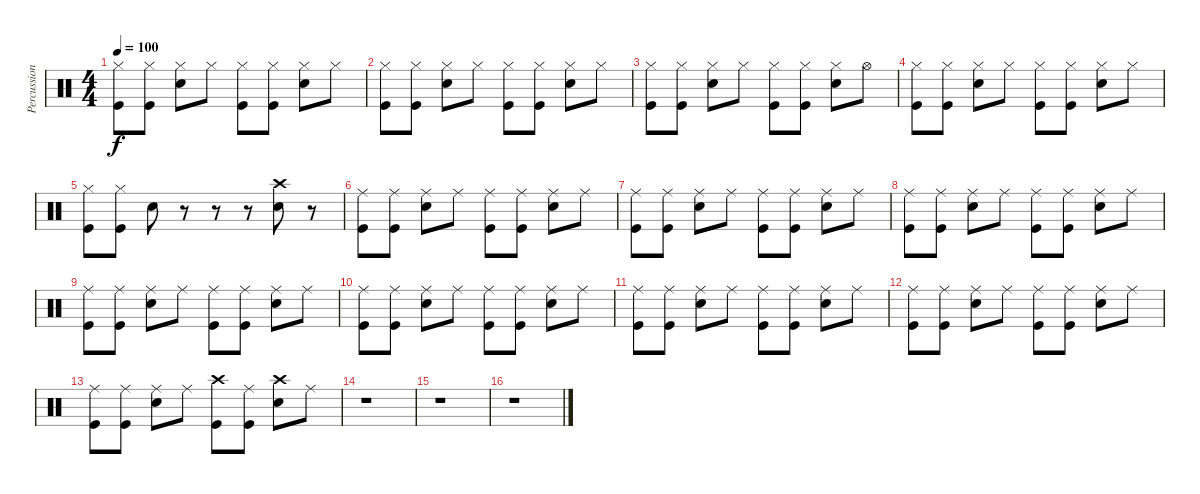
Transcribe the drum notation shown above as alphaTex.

\track ("Percussions" "Percussion") {instrument percussion}
\staff {score}
\articulation defaults
\ts (4 4)
\tempo 100
\clef neutral
\ks c
("Hi-Hat (closed)" "Kick (hit)").8{dy f} ("Hi-Hat (closed)" "Kick (hit)").8 ("Hi-Hat (closed)" "Electric Snare (hit)").8 "Hi-Hat (closed)".8 ("Hi-Hat (closed)" "Kick (hit)").8 ("Hi-Hat (closed)" "Kick (hit)").8 ("Hi-Hat (closed)" "Electric Snare (hit)").8 "Hi-Hat (closed)".8 |
("Hi-Hat (closed)" "Kick (hit)").8 ("Hi-Hat (closed)" "Kick (hit)").8 ("Hi-Hat (closed)" "Electric Snare (hit)").8 "Hi-Hat (closed)".8 ("Hi-Hat (closed)" "Kick (hit)").8 ("Hi-Hat (closed)" "Kick (hit)").8 ("Hi-Hat (closed)" "Electric Snare (hit)").8 "Hi-Hat (closed)".8 |
("Hi-Hat (closed)" "Kick (hit)").8 ("Hi-Hat (closed)" "Kick (hit)").8 ("Hi-Hat (closed)" "Electric Snare (hit)").8 "Hi-Hat (closed)".8 ("Hi-Hat (closed)" "Kick (hit)").8 ("Hi-Hat (closed)" "Kick (hit)").8 ("Hi-Hat (closed)" "Electric Snare (hit)").8 "Hi-Hat (open)".8 |
("Hi-Hat (closed)" "Kick (hit)").8 ("Hi-Hat (closed)" "Kick (hit)").8 ("Hi-Hat (closed)" "Electric Snare (hit)").8 "Hi-Hat (closed)".8 ("Hi-Hat (closed)" "Kick (hit)").8 ("Hi-Hat (closed)" "Kick (hit)").8 ("Hi-Hat (closed)" "Electric Snare (hit)").8 "Hi-Hat (closed)".8 |
("Hi-Hat (closed)" "Kick (hit)").8 ("Hi-Hat (closed)" "Kick (hit)").8 "Electric Snare (hit)".8 r.8 r.8 r.8 ("Crash high (hit)" "Electric Snare (hit)").8 r.8 |
("Ride (middle)" "Kick (hit)").8 ("Ride (middle)" "Kick (hit)").8 ("Ride (middle)" "Electric Snare (hit)").8 "Ride (middle)".8 ("Ride (middle)" "Kick (hit)").8 ("Ride (middle)" "Kick (hit)").8 ("Ride (middle)" "Electric Snare (hit)").8 "Ride (middle)".8 |
("Ride (middle)" "Kick (hit)").8 ("Ride (middle)" "Kick (hit)").8 ("Ride (middle)" "Electric Snare (hit)").8 "Ride (middle)".8 ("Ride (middle)" "Kick (hit)").8 ("Ride (middle)" "Kick (hit)").8 ("Ride (middle)" "Electric Snare (hit)").8 "Ride (middle)".8 |
("Ride (middle)" "Kick (hit)").8 ("Ride (middle)" "Kick (hit)").8 ("Ride (middle)" "Electric Snare (hit)").8 "Ride (middle)".8 ("Ride (middle)" "Kick (hit)").8 ("Ride (middle)" "Kick (hit)").8 ("Ride (middle)" "Electric Snare (hit)").8 "Ride (middle)".8 |
("Ride (middle)" "Kick (hit)").8 ("Ride (middle)" "Kick (hit)").8 ("Ride (middle)" "Electric Snare (hit)").8 "Ride (middle)".8 ("Ride (middle)" "Kick (hit)").8 ("Ride (middle)" "Kick (hit)").8 ("Ride (middle)" "Electric Snare (hit)").8 "Ride (middle)".8 |
("Ride (middle)" "Kick (hit)").8 ("Ride (middle)" "Kick (hit)").8 ("Ride (middle)" "Electric Snare (hit)").8 "Ride (middle)".8 ("Ride (middle)" "Kick (hit)").8 ("Ride (middle)" "Kick (hit)").8 ("Ride (middle)" "Electric Snare (hit)").8 "Ride (middle)".8 |
("Ride (middle)" "Kick (hit)").8 ("Ride (middle)" "Kick (hit)").8 ("Ride (middle)" "Electric Snare (hit)").8 "Ride (middle)".8 ("Ride (middle)" "Kick (hit)").8 ("Ride (middle)" "Kick (hit)").8 ("Ride (middle)" "Electric Snare (hit)").8 "Ride (middle)".8 |
("Ride (middle)" "Kick (hit)").8 ("Ride (middle)" "Kick (hit)").8 ("Ride (middle)" "Electric Snare (hit)").8 "Ride (middle)".8 ("Ride (middle)" "Kick (hit)").8 ("Ride (middle)" "Kick (hit)").8 ("Ride (middle)" "Electric Snare (hit)").8 "Ride (middle)".8 |
("Ride (middle)" "Kick (hit)").8 ("Ride (middle)" "Kick (hit)").8 ("Ride (middle)" "Electric Snare (hit)").8 "Ride (middle)".8 ("Crash high (hit)" "Kick (hit)").8 ("Ride (middle)" "Kick (hit)").8 ("Crash high (hit)" "Electric Snare (hit)").8 "Ride (middle)".8 |
r.1 |
r.1 |
r.1
